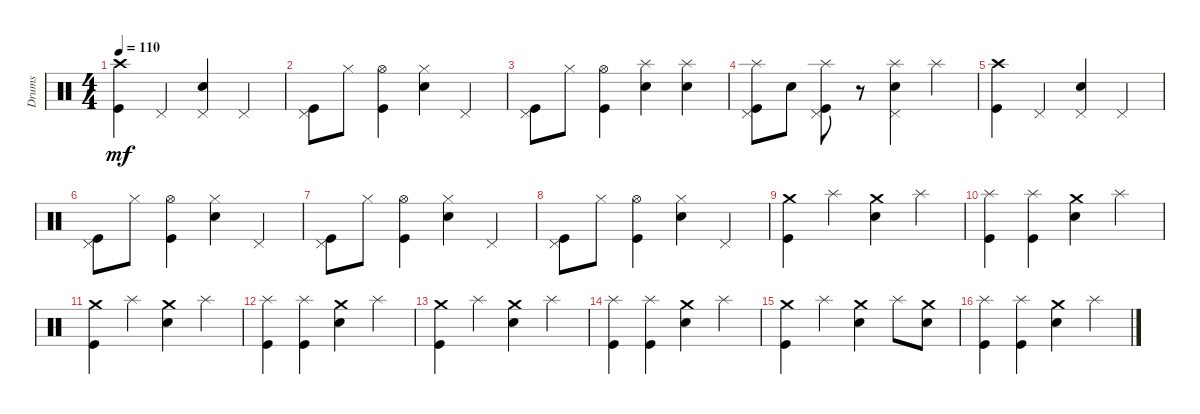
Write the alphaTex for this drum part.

\track ("Drums" "Drums") {instrument percussion}
\staff {score}
\articulation defaults
\ts (4 4)
\tempo 110
\clef neutral
\ks c
("Crash high (hit)" "Kick (hit)").4{dy mf} "Pedal Hi-Hat (hit)".4 ("Pedal Hi-Hat (hit)" "Snare (hit) 2").4 "Pedal Hi-Hat (hit)".4 |
("Pedal Hi-Hat (hit)" "Kick (hit)").8 "Hi-Hat (closed)".8 ("Hi-Hat (open)" "Kick (hit)").4 ("Hi-Hat (closed)" "Snare (hit) 2").4 "Pedal Hi-Hat (hit)".4 |
("Pedal Hi-Hat (hit)" "Kick (hit)").8 "Hi-Hat (closed)".8 ("Hi-Hat (open)" "Kick (hit)").4 ("Splash (hit)" "Snare (hit) 2").4 ("Splash (hit)" "Snare (hit) 2").4 |
("Splash (hit)" "Pedal Hi-Hat (hit)" "Kick (hit)").8 "Snare (hit) 2".8 ("Splash (hit)" "Pedal Hi-Hat (hit)" "Kick (hit)").8 r.8 ("Splash (hit)" "Pedal Hi-Hat (hit)" "Snare (hit) 2").4 "Splash (hit)".4 |
("Crash high (hit)" "Kick (hit)").4 "Pedal Hi-Hat (hit)".4 ("Pedal Hi-Hat (hit)" "Snare (hit) 2").4 "Pedal Hi-Hat (hit)".4 |
("Pedal Hi-Hat (hit)" "Kick (hit)").8 "Hi-Hat (closed)".8 ("Hi-Hat (open)" "Kick (hit)").4 ("Hi-Hat (closed)" "Snare (hit) 2").4 "Pedal Hi-Hat (hit)".4 |
("Pedal Hi-Hat (hit)" "Kick (hit)").8 "Hi-Hat (closed)".8 ("Hi-Hat (open)" "Kick (hit)").4 ("Hi-Hat (closed)" "Snare (hit) 2").4 "Pedal Hi-Hat (hit)".4 |
("Pedal Hi-Hat (hit)" "Kick (hit)").8 "Hi-Hat (closed)".8 ("Hi-Hat (open)" "Kick (hit)").4 ("Hi-Hat (closed)" "Snare (hit) 2").4 "Pedal Hi-Hat (hit)".4 |
("Crash medium (hit)" "Kick (hit)").4 "Splash (hit)".4 ("Crash medium (hit)" "Snare (hit) 2").4 "Splash (hit)".4 |
("Splash (hit)" "Kick (hit)").4 ("Splash (hit)" "Kick (hit)").4 ("Crash medium (hit)" "Snare (hit) 2").4 "Splash (hit)".4 |
("Crash medium (hit)" "Kick (hit)").4 "Splash (hit)".4 ("Crash medium (hit)" "Snare (hit) 2").4 "Splash (hit)".4 |
("Splash (hit)" "Kick (hit)").4 ("Splash (hit)" "Kick (hit)").4 ("Crash medium (hit)" "Snare (hit) 2").4 "Splash (hit)".4 |
("Crash medium (hit)" "Kick (hit)").4 "Splash (hit)".4 ("Crash medium (hit)" "Snare (hit) 2").4 "Splash (hit)".4 |
("Splash (hit)" "Kick (hit)").4 ("Splash (hit)" "Kick (hit)").4 ("Crash medium (hit)" "Snare (hit) 2").4 "Splash (hit)".4 |
("Crash medium (hit)" "Kick (hit)").4 "Splash (hit)".4 ("Crash medium (hit)" "Snare (hit) 2").4 "Splash (hit)".8 ("Crash medium (hit)" "Snare (hit) 2").8 |
("Splash (hit)" "Kick (hit)").4 ("Splash (hit)" "Kick (hit)").4 ("Crash medium (hit)" "Snare (hit) 2").4 "Splash (hit)".4
